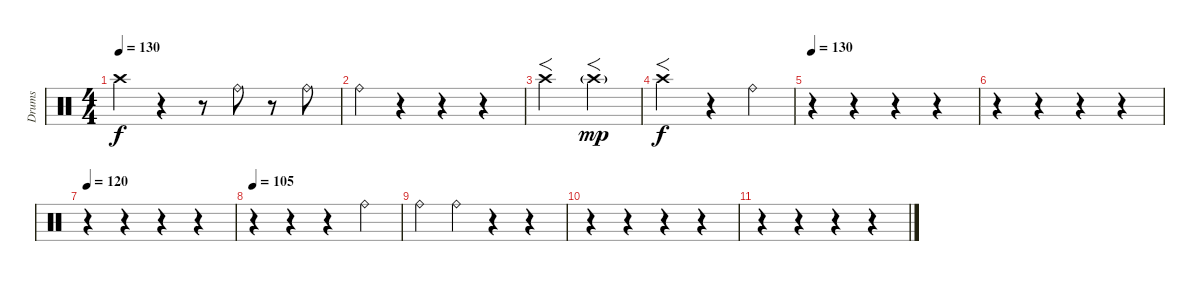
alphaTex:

\track ("Drums" "Drums") {instrument percussion}
\staff {score}
\articulation defaults
\ts (4 4)
\tempo 130
\clef neutral
\ks c "Crash high (hit)".4{dy f}
r.4 r.8 "Ride (bell)".8 r.8 "Ride (bell)".8 |
"Ride (bell)".4 r.4 r.4 r.4 |
"Crash high (hit)".2{f} "Crash high (hit)"{g}.2{f dy mp} |
"Crash high (hit)".2{f dy f} r.4 "Ride (bell)".4 |
\tempo 130
r.4 r.4 r.4 r.4 |
r.4 r.4 r.4 r.4 |
\tempo 120
r.4 r.4 r.4 r.4 |
\tempo 105
r.4 r.4 r.4 "Ride (bell)".4 |
"Ride (bell)".4 "Ride (bell)".4 r.4 r.4 |
r.4 r.4 r.4 r.4 |
r.4 r.4 r.4 r.4
